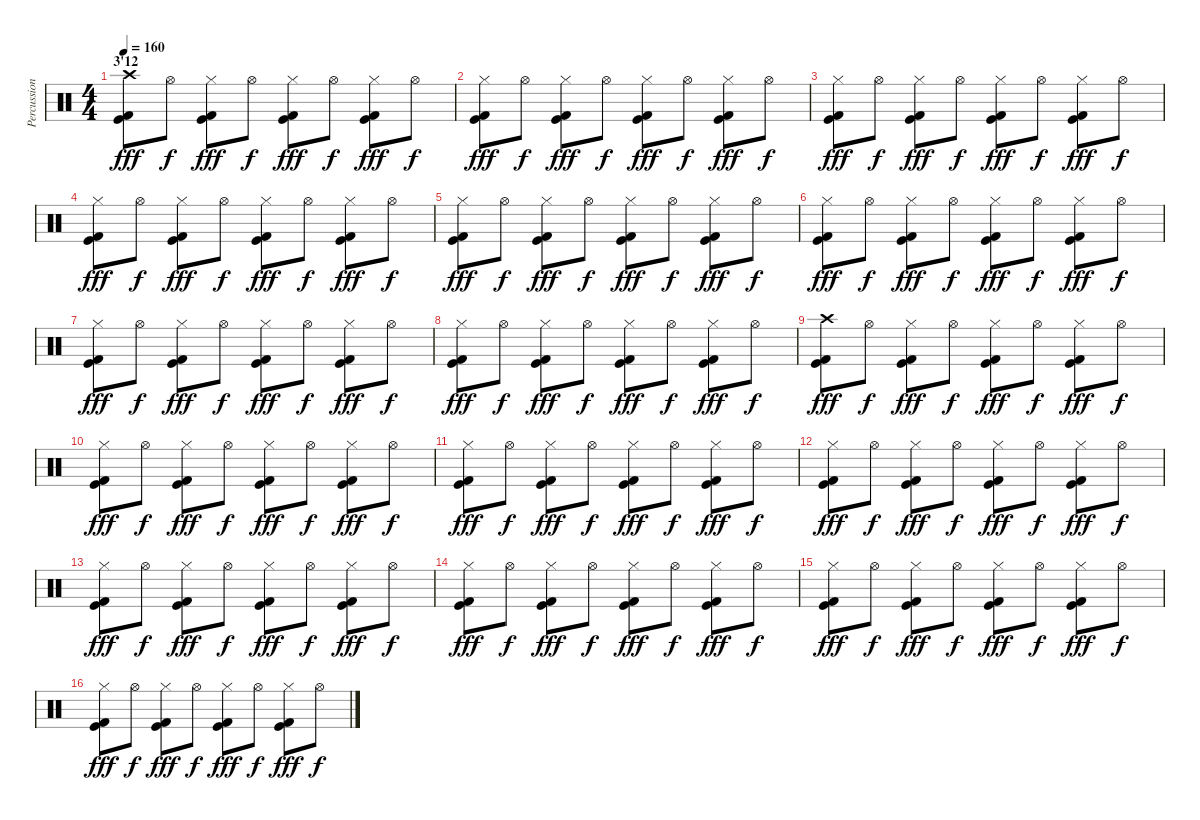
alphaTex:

\track ("Percussions" "Percussion") {instrument percussion}
\staff {score}
\articulation defaults
\ts (4 4)
\section ("" "3'12")
\tempo 160
\clef neutral
\ks c
("Crash high (hit)" "Kick (hit) 2" "Kick (hit)").8{dy fff volume 12} "Hi-Hat (open)".8{dy f} ("Hi-Hat (closed)" "Kick (hit) 2" "Kick (hit)").8{dy fff} "Hi-Hat (open)".8{dy f} ("Hi-Hat (closed)" "Kick (hit) 2" "Kick (hit)").8{dy fff} "Hi-Hat (open)".8{dy f} ("Hi-Hat (closed)" "Kick (hit) 2" "Kick (hit)").8{dy fff} "Hi-Hat (open)".8{dy f} |
("Hi-Hat (closed)" "Kick (hit) 2" "Kick (hit)").8{dy fff} "Hi-Hat (open)".8{dy f} ("Hi-Hat (closed)" "Kick (hit) 2" "Kick (hit)").8{dy fff} "Hi-Hat (open)".8{dy f} ("Hi-Hat (closed)" "Kick (hit) 2" "Kick (hit)").8{dy fff} "Hi-Hat (open)".8{dy f} ("Hi-Hat (closed)" "Kick (hit) 2" "Kick (hit)").8{dy fff} "Hi-Hat (open)".8{dy f} |
("Hi-Hat (closed)" "Kick (hit) 2" "Kick (hit)").8{dy fff} "Hi-Hat (open)".8{dy f} ("Hi-Hat (closed)" "Kick (hit) 2" "Kick (hit)").8{dy fff} "Hi-Hat (open)".8{dy f} ("Hi-Hat (closed)" "Kick (hit) 2" "Kick (hit)").8{dy fff} "Hi-Hat (open)".8{dy f} ("Hi-Hat (closed)" "Kick (hit) 2" "Kick (hit)").8{dy fff} "Hi-Hat (open)".8{dy f} |
("Hi-Hat (closed)" "Kick (hit) 2" "Kick (hit)").8{dy fff} "Hi-Hat (open)".8{dy f} ("Hi-Hat (closed)" "Kick (hit) 2" "Kick (hit)").8{dy fff} "Hi-Hat (open)".8{dy f} ("Hi-Hat (closed)" "Kick (hit) 2" "Kick (hit)").8{dy fff} "Hi-Hat (open)".8{dy f} ("Hi-Hat (closed)" "Kick (hit) 2" "Kick (hit)").8{dy fff} "Hi-Hat (open)".8{dy f} |
("Hi-Hat (closed)" "Kick (hit) 2" "Kick (hit)").8{dy fff volume 10} "Hi-Hat (open)".8{dy f} ("Hi-Hat (closed)" "Kick (hit) 2" "Kick (hit)").8{dy fff} "Hi-Hat (open)".8{dy f} ("Hi-Hat (closed)" "Kick (hit) 2" "Kick (hit)").8{dy fff} "Hi-Hat (open)".8{dy f} ("Hi-Hat (closed)" "Kick (hit) 2" "Kick (hit)").8{dy fff} "Hi-Hat (open)".8{dy f} |
("Hi-Hat (closed)" "Kick (hit) 2" "Kick (hit)").8{dy fff} "Hi-Hat (open)".8{dy f} ("Hi-Hat (closed)" "Kick (hit) 2" "Kick (hit)").8{dy fff} "Hi-Hat (open)".8{dy f} ("Hi-Hat (closed)" "Kick (hit) 2" "Kick (hit)").8{dy fff} "Hi-Hat (open)".8{dy f} ("Hi-Hat (closed)" "Kick (hit) 2" "Kick (hit)").8{dy fff} "Hi-Hat (open)".8{dy f} |
("Hi-Hat (closed)" "Kick (hit) 2" "Kick (hit)").8{dy fff} "Hi-Hat (open)".8{dy f} ("Hi-Hat (closed)" "Kick (hit) 2" "Kick (hit)").8{dy fff} "Hi-Hat (open)".8{dy f} ("Hi-Hat (closed)" "Kick (hit) 2" "Kick (hit)").8{dy fff} "Hi-Hat (open)".8{dy f} ("Hi-Hat (closed)" "Kick (hit) 2" "Kick (hit)").8{dy fff} "Hi-Hat (open)".8{dy f} |
("Hi-Hat (closed)" "Kick (hit) 2" "Kick (hit)").8{dy fff} "Hi-Hat (open)".8{dy f} ("Hi-Hat (closed)" "Kick (hit) 2" "Kick (hit)").8{dy fff} "Hi-Hat (open)".8{dy f} ("Hi-Hat (closed)" "Kick (hit) 2" "Kick (hit)").8{dy fff} "Hi-Hat (open)".8{dy f} ("Hi-Hat (closed)" "Kick (hit) 2" "Kick (hit)").8{dy fff} "Hi-Hat (open)".8{dy f} |
("Crash high (hit)" "Kick (hit) 2" "Kick (hit)").8{dy fff volume 8} "Hi-Hat (open)".8{dy f} ("Hi-Hat (closed)" "Kick (hit) 2" "Kick (hit)").8{dy fff} "Hi-Hat (open)".8{dy f} ("Hi-Hat (closed)" "Kick (hit) 2" "Kick (hit)").8{dy fff} "Hi-Hat (open)".8{dy f} ("Hi-Hat (closed)" "Kick (hit) 2" "Kick (hit)").8{dy fff} "Hi-Hat (open)".8{dy f} |
("Hi-Hat (closed)" "Kick (hit) 2" "Kick (hit)").8{dy fff} "Hi-Hat (open)".8{dy f} ("Hi-Hat (closed)" "Kick (hit) 2" "Kick (hit)").8{dy fff} "Hi-Hat (open)".8{dy f} ("Hi-Hat (closed)" "Kick (hit) 2" "Kick (hit)").8{dy fff} "Hi-Hat (open)".8{dy f} ("Hi-Hat (closed)" "Kick (hit) 2" "Kick (hit)").8{dy fff} "Hi-Hat (open)".8{dy f} |
("Hi-Hat (closed)" "Kick (hit) 2" "Kick (hit)").8{dy fff} "Hi-Hat (open)".8{dy f} ("Hi-Hat (closed)" "Kick (hit) 2" "Kick (hit)").8{dy fff} "Hi-Hat (open)".8{dy f} ("Hi-Hat (closed)" "Kick (hit) 2" "Kick (hit)").8{dy fff} "Hi-Hat (open)".8{dy f} ("Hi-Hat (closed)" "Kick (hit) 2" "Kick (hit)").8{dy fff} "Hi-Hat (open)".8{dy f} |
("Hi-Hat (closed)" "Kick (hit) 2" "Kick (hit)").8{dy fff} "Hi-Hat (open)".8{dy f} ("Hi-Hat (closed)" "Kick (hit) 2" "Kick (hit)").8{dy fff} "Hi-Hat (open)".8{dy f} ("Hi-Hat (closed)" "Kick (hit) 2" "Kick (hit)").8{dy fff} "Hi-Hat (open)".8{dy f} ("Hi-Hat (closed)" "Kick (hit) 2" "Kick (hit)").8{dy fff} "Hi-Hat (open)".8{dy f} |
("Hi-Hat (closed)" "Kick (hit) 2" "Kick (hit)").8{dy fff volume 6} "Hi-Hat (open)".8{dy f} ("Hi-Hat (closed)" "Kick (hit) 2" "Kick (hit)").8{dy fff} "Hi-Hat (open)".8{dy f} ("Hi-Hat (closed)" "Kick (hit) 2" "Kick (hit)").8{dy fff} "Hi-Hat (open)".8{dy f} ("Hi-Hat (closed)" "Kick (hit) 2" "Kick (hit)").8{dy fff} "Hi-Hat (open)".8{dy f} |
("Hi-Hat (closed)" "Kick (hit) 2" "Kick (hit)").8{dy fff} "Hi-Hat (open)".8{dy f} ("Hi-Hat (closed)" "Kick (hit) 2" "Kick (hit)").8{dy fff} "Hi-Hat (open)".8{dy f} ("Hi-Hat (closed)" "Kick (hit) 2" "Kick (hit)").8{dy fff} "Hi-Hat (open)".8{dy f} ("Hi-Hat (closed)" "Kick (hit) 2" "Kick (hit)").8{dy fff} "Hi-Hat (open)".8{dy f} |
("Hi-Hat (closed)" "Kick (hit) 2" "Kick (hit)").8{dy fff} "Hi-Hat (open)".8{dy f} ("Hi-Hat (closed)" "Kick (hit) 2" "Kick (hit)").8{dy fff} "Hi-Hat (open)".8{dy f} ("Hi-Hat (closed)" "Kick (hit) 2" "Kick (hit)").8{dy fff} "Hi-Hat (open)".8{dy f} ("Hi-Hat (closed)" "Kick (hit) 2" "Kick (hit)").8{dy fff} "Hi-Hat (open)".8{dy f} |
("Hi-Hat (closed)" "Kick (hit) 2" "Kick (hit)").8{dy fff} "Hi-Hat (open)".8{dy f} ("Hi-Hat (closed)" "Kick (hit) 2" "Kick (hit)").8{dy fff} "Hi-Hat (open)".8{dy f} ("Hi-Hat (closed)" "Kick (hit) 2" "Kick (hit)").8{dy fff} "Hi-Hat (open)".8{dy f} ("Hi-Hat (closed)" "Kick (hit) 2" "Kick (hit)").8{dy fff} "Hi-Hat (open)".8{dy f}
